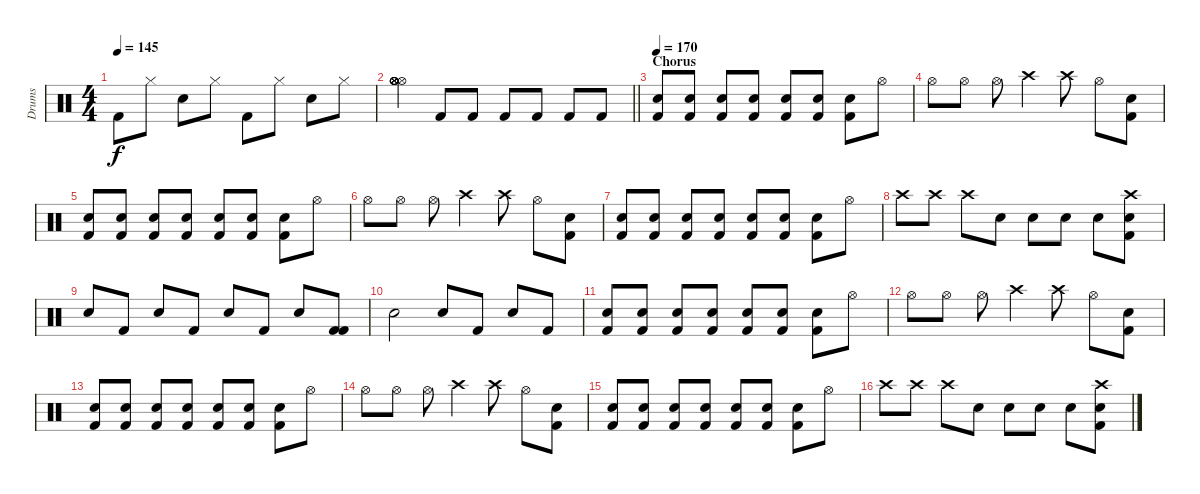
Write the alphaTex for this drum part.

\track ("Drums" "Drums") {instrument percussion}
\staff {score}
\articulation defaults
\ts (4 4)
\tempo 145
\clef neutral
\ks c "Kick (hit) 2".8{dy f} "Hi-Hat (closed)".8 "Electric Snare (hit)".8 "Hi-Hat (closed)".8 "Kick (hit) 2".8 "Hi-Hat (closed)".8 "Electric Snare (hit)".8 "Hi-Hat (closed)".8
|
\barLineRight lightlight
("Hi-Hat (open)" "Hi-Hat (open)" "Hi-Hat (open)" "Hi-Hat (open)" "Hi-Hat (open)" "Hi-Hat (open)").4 "Kick (hit) 2".8 "Kick (hit) 2".8 "Kick (hit) 2".8 "Kick (hit) 2".8 "Kick (hit) 2".8 "Kick (hit) 2".8 |
\section ("" "Chorus")
\tempo 170
("Electric Snare (hit)" "Kick (hit) 2").8 ("Electric Snare (hit)" "Kick (hit) 2").8 ("Electric Snare (hit)" "Kick (hit) 2").8 ("Electric Snare (hit)" "Kick (hit) 2").8 ("Electric Snare (hit)" "Kick (hit) 2").8 ("Electric Snare (hit)" "Kick (hit) 2").8 ("Electric Snare (hit)" "Kick (hit) 2").8 "Hi-Hat (open)".8 |
"Hi-Hat (open)".8 "Hi-Hat (open)".8 "Hi-Hat (open)".8 "Crash high (hit)".4 "Crash high (hit)".8 "Hi-Hat (open)".8 ("Electric Snare (hit)" "Kick (hit) 2").8 |
("Electric Snare (hit)" "Kick (hit) 2").8 ("Electric Snare (hit)" "Kick (hit) 2").8 ("Electric Snare (hit)" "Kick (hit) 2").8 ("Electric Snare (hit)" "Kick (hit) 2").8 ("Electric Snare (hit)" "Kick (hit) 2").8 ("Electric Snare (hit)" "Kick (hit) 2").8 ("Electric Snare (hit)" "Kick (hit) 2").8 "Hi-Hat (open)".8 |
"Hi-Hat (open)".8 "Hi-Hat (open)".8 "Hi-Hat (open)".8 "Crash high (hit)".4 "Crash high (hit)".8 "Hi-Hat (open)".8 ("Electric Snare (hit)" "Kick (hit) 2").8 |
("Electric Snare (hit)" "Kick (hit) 2").8 ("Electric Snare (hit)" "Kick (hit) 2").8 ("Electric Snare (hit)" "Kick (hit) 2").8 ("Electric Snare (hit)" "Kick (hit) 2").8 ("Electric Snare (hit)" "Kick (hit) 2").8 ("Electric Snare (hit)" "Kick (hit) 2").8 ("Electric Snare (hit)" "Kick (hit) 2").8 "Hi-Hat (open)".8 |
"Crash high (hit)".8 "Crash high (hit)".8 "Crash high (hit)".8 "Electric Snare (hit)".8 "Electric Snare (hit)".8 "Electric Snare (hit)".8 "Electric Snare (hit)".8 ("Electric Snare (hit)" "Crash high (hit)" "Kick (hit) 2").8 |
"Electric Snare (hit)".8 "Kick (hit) 2".8 "Electric Snare (hit)".8 "Kick (hit) 2".8 "Electric Snare (hit)".8 "Kick (hit) 2".8 "Electric Snare (hit)".8 ("Kick (hit) 2" "Kick (hit) 2").8 |
"Electric Snare (hit)".2 "Electric Snare (hit)".8 "Kick (hit) 2".8 "Electric Snare (hit)".8 "Kick (hit) 2".8 |
("Electric Snare (hit)" "Kick (hit) 2").8 ("Electric Snare (hit)" "Kick (hit) 2").8 ("Electric Snare (hit)" "Kick (hit) 2").8 ("Electric Snare (hit)" "Kick (hit) 2").8 ("Electric Snare (hit)" "Kick (hit) 2").8 ("Electric Snare (hit)" "Kick (hit) 2").8 ("Electric Snare (hit)" "Kick (hit) 2").8 "Hi-Hat (open)".8 |
"Hi-Hat (open)".8 "Hi-Hat (open)".8 "Hi-Hat (open)".8 "Crash high (hit)".4 "Crash high (hit)".8 "Hi-Hat (open)".8 ("Electric Snare (hit)" "Kick (hit) 2").8 |
("Electric Snare (hit)" "Kick (hit) 2").8 ("Electric Snare (hit)" "Kick (hit) 2").8 ("Electric Snare (hit)" "Kick (hit) 2").8 ("Electric Snare (hit)" "Kick (hit) 2").8 ("Electric Snare (hit)" "Kick (hit) 2").8 ("Electric Snare (hit)" "Kick (hit) 2").8 ("Electric Snare (hit)" "Kick (hit) 2").8 "Hi-Hat (open)".8 |
"Hi-Hat (open)".8 "Hi-Hat (open)".8 "Hi-Hat (open)".8 "Crash high (hit)".4 "Crash high (hit)".8 "Hi-Hat (open)".8 ("Electric Snare (hit)" "Kick (hit) 2").8 |
("Electric Snare (hit)" "Kick (hit) 2").8 ("Electric Snare (hit)" "Kick (hit) 2").8 ("Electric Snare (hit)" "Kick (hit) 2").8 ("Electric Snare (hit)" "Kick (hit) 2").8 ("Electric Snare (hit)" "Kick (hit) 2").8 ("Electric Snare (hit)" "Kick (hit) 2").8 ("Electric Snare (hit)" "Kick (hit) 2").8 "Hi-Hat (open)".8 |
"Crash high (hit)".8 "Crash high (hit)".8 "Crash high (hit)".8 "Electric Snare (hit)".8 "Electric Snare (hit)".8 "Electric Snare (hit)".8 "Electric Snare (hit)".8 ("Electric Snare (hit)" "Crash high (hit)" "Kick (hit) 2").8
